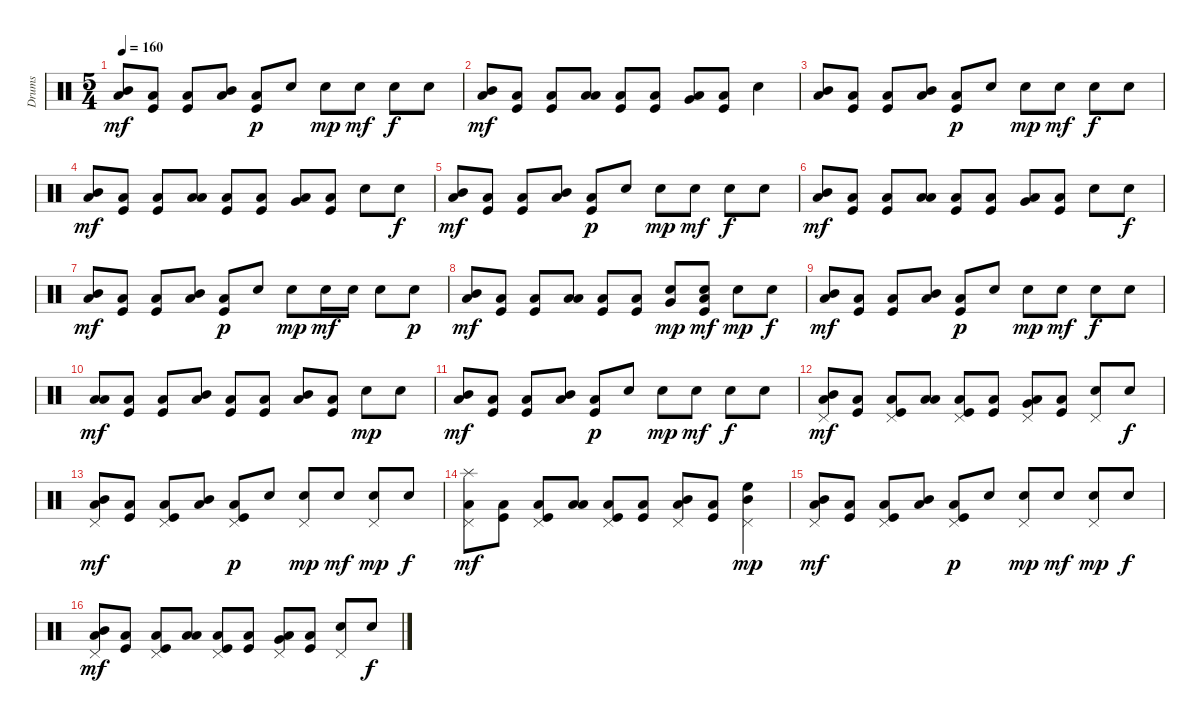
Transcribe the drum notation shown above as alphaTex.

\track ("Drums" "Drums") {instrument percussion bank 127}
\staff {score}
\articulation defaults
\ts (5 4)
\tempo 160
\clef neutral
\ks c
("Mid Tom (hit)" "Low Floor Tom (hit)").8{dy mf} ("Low Floor Tom (hit)" "Kick (hit)").8 ("Low Floor Tom (hit)" "Kick (hit)").8 ("Mid Tom (hit)" "Low Floor Tom (hit)").8 ("Low Floor Tom (hit)" "Kick (hit)").8{dy p} "Snare (hit) 2".8 "Snare (hit) 2".8{dy mp} "Snare (hit) 2".8{dy mf} "Snare (hit) 2".8{dy f} "Snare (hit) 2".8 |
("Mid Tom (hit)" "Low Tom (hit)").8{dy mf} ("Low Floor Tom (hit)" "Kick (hit)").8 ("Low Floor Tom (hit)" "Kick (hit)").8 ("Low Tom (hit)" "Low Tom (hit)").8 ("Low Floor Tom (hit)" "Kick (hit)").8 ("Low Floor Tom (hit)" "Kick (hit)").8 ("Very Low Tom (hit)" "Low Tom (hit)").8 ("Low Floor Tom (hit)" "Kick (hit)").8 "Snare (hit) 2".4 |
("Mid Tom (hit)" "Low Floor Tom (hit)").8 ("Low Floor Tom (hit)" "Kick (hit)").8 ("Low Floor Tom (hit)" "Kick (hit)").8 ("Mid Tom (hit)" "Low Floor Tom (hit)").8 ("Low Floor Tom (hit)" "Kick (hit)").8{dy p} "Snare (hit) 2".8 "Snare (hit) 2".8{dy mp} "Snare (hit) 2".8{dy mf} "Snare (hit) 2".8{dy f} "Snare (hit) 2".8 |
("Mid Tom (hit)" "Low Tom (hit)").8{dy mf} ("Low Floor Tom (hit)" "Kick (hit)").8 ("Low Floor Tom (hit)" "Kick (hit)").8 ("Low Tom (hit)" "Low Tom (hit)").8 ("Low Floor Tom (hit)" "Kick (hit)").8 ("Low Floor Tom (hit)" "Kick (hit)").8 ("Very Low Tom (hit)" "Low Tom (hit)").8 ("Low Floor Tom (hit)" "Kick (hit)").8 "Snare (hit) 2".8 "Snare (hit) 2".8{dy f} |
("Mid Tom (hit)" "Low Floor Tom (hit)").8{dy mf} ("Low Floor Tom (hit)" "Kick (hit)").8 ("Low Floor Tom (hit)" "Kick (hit)").8 ("Mid Tom (hit)" "Low Floor Tom (hit)").8 ("Low Floor Tom (hit)" "Kick (hit)").8{dy p} "Snare (hit) 2".8 "Snare (hit) 2".8{dy mp} "Snare (hit) 2".8{dy mf} "Snare (hit) 2".8{dy f} "Snare (hit) 2".8 |
("Mid Tom (hit)" "Low Tom (hit)").8{dy mf} ("Low Floor Tom (hit)" "Kick (hit)").8 ("Low Floor Tom (hit)" "Kick (hit)").8 ("Low Tom (hit)" "Low Tom (hit)").8 ("Low Floor Tom (hit)" "Kick (hit)").8 ("Low Floor Tom (hit)" "Kick (hit)").8 ("Very Low Tom (hit)" "Low Tom (hit)").8 ("Low Floor Tom (hit)" "Kick (hit)").8 "Snare (hit) 2".8 "Snare (hit) 2".8{dy f} |
("Mid Tom (hit)" "Low Floor Tom (hit)").8{dy mf} ("Low Floor Tom (hit)" "Kick (hit)").8 ("Low Floor Tom (hit)" "Kick (hit)").8 ("Mid Tom (hit)" "Low Floor Tom (hit)").8 ("Low Floor Tom (hit)" "Kick (hit)").8{dy p} "Snare (hit) 2".8 "Snare (hit) 2".8{dy mp} "Snare (hit) 2".16{dy mf} "Snare (hit) 2".16 "Snare (hit) 2".8 "Snare (hit) 2".8{dy p} |
("Mid Tom (hit)" "Low Tom (hit)").8{dy mf} ("Low Floor Tom (hit)" "Kick (hit)").8 ("Low Floor Tom (hit)" "Kick (hit)").8 ("Low Tom (hit)" "Low Tom (hit)").8 ("Low Floor Tom (hit)" "Kick (hit)").8 ("Low Floor Tom (hit)" "Kick (hit)").8 ("Very Low Tom (hit)" "Snare (hit) 2").8{dy mp} ("Snare (hit) 2" "Low Floor Tom (hit)" "Kick (hit)").8{dy mf} "Snare (hit) 2".8{dy mp} "Snare (hit) 2".8{dy f} |
("Mid Tom (hit)" "Low Floor Tom (hit)").8{dy mf} ("Low Floor Tom (hit)" "Kick (hit)").8 ("Low Floor Tom (hit)" "Kick (hit)").8 ("Mid Tom (hit)" "Low Floor Tom (hit)").8 ("Low Floor Tom (hit)" "Kick (hit)").8{dy p} "Snare (hit) 2".8 "Snare (hit) 2".8{dy mp} "Snare (hit) 2".8{dy mf} "Snare (hit) 2".8{dy f} "Snare (hit) 2".8 |
("Low Tom (hit)" "Low Tom (hit)").8{dy mf} ("Low Floor Tom (hit)" "Kick (hit)").8 ("Low Floor Tom (hit)" "Kick (hit)").8 ("Mid Tom (hit)" "Low Tom (hit)").8 ("Low Floor Tom (hit)" "Kick (hit)").8 ("Low Floor Tom (hit)" "Kick (hit)").8 ("Mid Tom (hit)" "Low Tom (hit)").8 ("Low Floor Tom (hit)" "Kick (hit)").8 "Electric Snare (hit)".8{dy mp} "Electric Snare (hit)".8 |
("Mid Tom (hit)" "Low Floor Tom (hit)").8{dy mf} ("Low Floor Tom (hit)" "Kick (hit)").8 ("Low Floor Tom (hit)" "Kick (hit)").8 ("Mid Tom (hit)" "Low Floor Tom (hit)").8 ("Low Floor Tom (hit)" "Kick (hit)").8{dy p} "Snare (hit) 2".8 "Snare (hit) 2".8{dy mp} "Snare (hit) 2".8{dy mf} "Snare (hit) 2".8{dy f} "Snare (hit) 2".8 |
("Pedal Hi-Hat (hit)" "Mid Tom (hit)" "Low Tom (hit)").8{dy mf} ("Low Floor Tom (hit)" "Kick (hit)").8 ("Pedal Hi-Hat (hit)" "Low Floor Tom (hit)" "Kick (hit)").8 ("Low Tom (hit)" "Low Tom (hit)").8 ("Pedal Hi-Hat (hit)" "Low Floor Tom (hit)" "Kick (hit)").8 ("Low Floor Tom (hit)" "Kick (hit)").8 ("Pedal Hi-Hat (hit)" "Very Low Tom (hit)" "Low Tom (hit)").8 ("Low Floor Tom (hit)" "Kick (hit)").8 ("Pedal Hi-Hat (hit)" "Snare (hit) 2").8 "Snare (hit) 2".8{dy f} |
("Pedal Hi-Hat (hit)" "Mid Tom (hit)" "Low Floor Tom (hit)").8{dy mf} ("Low Floor Tom (hit)" "Kick (hit)").8 ("Pedal Hi-Hat (hit)" "Low Floor Tom (hit)" "Kick (hit)").8 ("Mid Tom (hit)" "Low Floor Tom (hit)").8 ("Pedal Hi-Hat (hit)" "Low Floor Tom (hit)" "Kick (hit)").8{dy p} "Snare (hit) 2".8 ("Pedal Hi-Hat (hit)" "Snare (hit) 2").8{dy mp} "Snare (hit) 2".8{dy mf} ("Pedal Hi-Hat (hit)" "Snare (hit) 2").8{dy mp} "Snare (hit) 2".8{dy f} |
("Pedal Hi-Hat (hit)" "Splash (hit)" "Low Tom (hit)").8{dy mf} ("Low Floor Tom (hit)" "Kick (hit)").8 ("Pedal Hi-Hat (hit)" "Low Floor Tom (hit)" "Kick (hit)").8 ("Low Tom (hit)" "Low Tom (hit)").8 ("Pedal Hi-Hat (hit)" "Low Floor Tom (hit)" "Kick (hit)").8 ("Low Floor Tom (hit)" "Kick (hit)").8 ("Pedal Hi-Hat (hit)" "Mid Tom (hit)" "Low Tom (hit)").8 ("Low Floor Tom (hit)" "Kick (hit)").8 ("Pedal Hi-Hat (hit)" "Mid Tom (hit)" "High Floor Tom (hit)").4{dy mp} |
("Pedal Hi-Hat (hit)" "Mid Tom (hit)" "Low Floor Tom (hit)").8{dy mf} ("Low Floor Tom (hit)" "Kick (hit)").8 ("Pedal Hi-Hat (hit)" "Low Floor Tom (hit)" "Kick (hit)").8 ("Mid Tom (hit)" "Low Floor Tom (hit)").8 ("Pedal Hi-Hat (hit)" "Low Floor Tom (hit)" "Kick (hit)").8{dy p} "Snare (hit) 2".8 ("Pedal Hi-Hat (hit)" "Snare (hit) 2").8{dy mp} "Snare (hit) 2".8{dy mf} ("Pedal Hi-Hat (hit)" "Snare (hit) 2").8{dy mp} "Snare (hit) 2".8{dy f} |
("Pedal Hi-Hat (hit)" "Mid Tom (hit)" "Low Tom (hit)").8{dy mf} ("Low Floor Tom (hit)" "Kick (hit)").8 ("Pedal Hi-Hat (hit)" "Low Floor Tom (hit)" "Kick (hit)").8 ("Low Tom (hit)" "Low Tom (hit)").8 ("Pedal Hi-Hat (hit)" "Low Floor Tom (hit)" "Kick (hit)").8 ("Low Floor Tom (hit)" "Kick (hit)").8 ("Pedal Hi-Hat (hit)" "Very Low Tom (hit)" "Low Tom (hit)").8 ("Low Floor Tom (hit)" "Kick (hit)").8 ("Pedal Hi-Hat (hit)" "Snare (hit) 2").8 "Snare (hit) 2".8{dy f}
